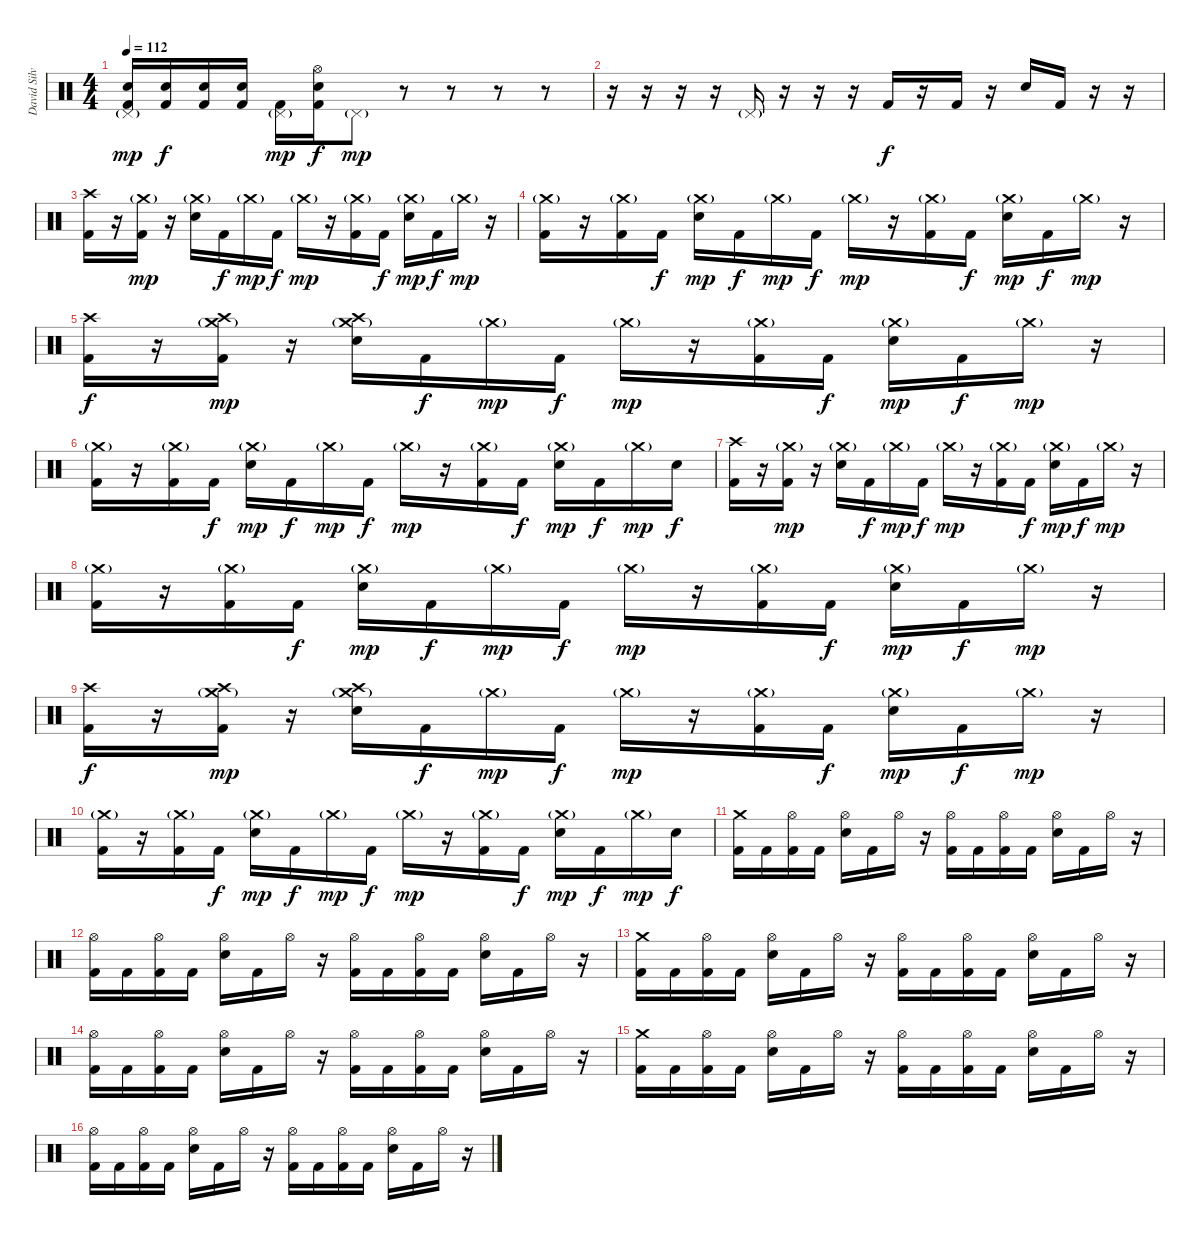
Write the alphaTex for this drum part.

\track ("David Silveria" "David Silv") {instrument percussion}
\staff {score}
\articulation defaults
\ts (4 4)
\tempo 112
\clef neutral
\ks c
("Pedal Hi-Hat (hit)"{g} "Electric Snare (hit)" "Kick (hit) 2").16{dy mp} ("Electric Snare (hit)" "Kick (hit) 2").16{dy f} ("Electric Snare (hit)" "Kick (hit) 2").16 ("Electric Snare (hit)" "Kick (hit) 2").16 ("Pedal Hi-Hat (hit)"{g} "Kick (hit) 2").16{dy mp} ("Hi-Hat (open)" "Electric Snare (hit)" "Kick (hit) 2").16{dy f} "Pedal Hi-Hat (hit)"{g}.8{dy mp} r.8 r.8 r.8 r.8 |
r.16 r.16 r.16 r.16 "Pedal Hi-Hat (hit)"{g}.16 r.16 r.16 r.16 "Kick (hit) 2".16{dy f} r.16 "Kick (hit) 2".16 r.16 "Electric Snare (hit)".16 "Kick (hit) 2".16 r.16 r.16 |
("Crash high (hit)" "Kick (hit) 2").16 r.16 ("Crash medium (hit)"{g} "Kick (hit) 2").16{dy mp} r.16 ("Crash medium (hit)"{g} "Electric Snare (hit)").16 "Kick (hit) 2".16{dy f} "Crash medium (hit)"{g}.16{dy mp} "Kick (hit) 2".16{dy f} "Crash medium (hit)"{g}.16{dy mp} r.16 ("Crash medium (hit)"{g} "Kick (hit) 2").16 "Kick (hit) 2".16{dy f} ("Crash medium (hit)"{g} "Electric Snare (hit)").16{dy mp} "Kick (hit) 2".16{dy f} "Crash medium (hit)"{g}.16{dy mp} r.16 |
("Crash medium (hit)"{g} "Kick (hit) 2").16 r.16 ("Crash medium (hit)"{g} "Kick (hit) 2").16 "Kick (hit) 2".16{dy f} ("Crash medium (hit)"{g} "Electric Snare (hit)").16{dy mp} "Kick (hit) 2".16{dy f} "Crash medium (hit)"{g}.16{dy mp} "Kick (hit) 2".16{dy f} "Crash medium (hit)"{g}.16{dy mp} r.16 ("Crash medium (hit)"{g} "Kick (hit) 2").16 "Kick (hit) 2".16{dy f} ("Crash medium (hit)"{g} "Electric Snare (hit)").16{dy mp} "Kick (hit) 2".16{dy f} "Crash medium (hit)"{g}.16{dy mp} r.16 |
("Crash high (hit)" "Kick (hit) 2").16{dy f} r.16 ("Crash high (hit)" "Crash medium (hit)"{g} "Kick (hit) 2").16{dy mp} r.16 ("Crash high (hit)" "Crash medium (hit)"{g} "Electric Snare (hit)").16 "Kick (hit) 2".16{dy f} "Crash medium (hit)"{g}.16{dy mp} "Kick (hit) 2".16{dy f} "Crash medium (hit)"{g}.16{dy mp} r.16 ("Crash medium (hit)"{g} "Kick (hit) 2").16 "Kick (hit) 2".16{dy f} ("Crash medium (hit)"{g} "Electric Snare (hit)").16{dy mp} "Kick (hit) 2".16{dy f} "Crash medium (hit)"{g}.16{dy mp} r.16 |
("Crash medium (hit)"{g} "Kick (hit) 2").16 r.16 ("Crash medium (hit)"{g} "Kick (hit) 2").16 "Kick (hit) 2".16{dy f} ("Crash medium (hit)"{g} "Electric Snare (hit)").16{dy mp} "Kick (hit) 2".16{dy f} "Crash medium (hit)"{g}.16{dy mp} "Kick (hit) 2".16{dy f} "Crash medium (hit)"{g}.16{dy mp} r.16 ("Crash medium (hit)"{g} "Kick (hit) 2").16 "Kick (hit) 2".16{dy f} ("Crash medium (hit)"{g} "Electric Snare (hit)").16{dy mp} "Kick (hit) 2".16{dy f} "Crash medium (hit)"{g}.16{dy mp} "Electric Snare (hit)".16{dy f} |
("Crash high (hit)" "Kick (hit) 2").16 r.16 ("Crash medium (hit)"{g} "Kick (hit) 2").16{dy mp} r.16 ("Crash medium (hit)"{g} "Electric Snare (hit)").16 "Kick (hit) 2".16{dy f} "Crash medium (hit)"{g}.16{dy mp} "Kick (hit) 2".16{dy f} "Crash medium (hit)"{g}.16{dy mp} r.16 ("Crash medium (hit)"{g} "Kick (hit) 2").16 "Kick (hit) 2".16{dy f} ("Crash medium (hit)"{g} "Electric Snare (hit)").16{dy mp} "Kick (hit) 2".16{dy f} "Crash medium (hit)"{g}.16{dy mp} r.16 |
("Crash medium (hit)"{g} "Kick (hit) 2").16 r.16 ("Crash medium (hit)"{g} "Kick (hit) 2").16 "Kick (hit) 2".16{dy f} ("Crash medium (hit)"{g} "Electric Snare (hit)").16{dy mp} "Kick (hit) 2".16{dy f} "Crash medium (hit)"{g}.16{dy mp} "Kick (hit) 2".16{dy f} "Crash medium (hit)"{g}.16{dy mp} r.16 ("Crash medium (hit)"{g} "Kick (hit) 2").16 "Kick (hit) 2".16{dy f} ("Crash medium (hit)"{g} "Electric Snare (hit)").16{dy mp} "Kick (hit) 2".16{dy f} "Crash medium (hit)"{g}.16{dy mp} r.16 |
("Crash high (hit)" "Kick (hit) 2").16{dy f} r.16 ("Crash high (hit)" "Crash medium (hit)"{g} "Kick (hit) 2").16{dy mp} r.16 ("Crash high (hit)" "Crash medium (hit)"{g} "Electric Snare (hit)").16 "Kick (hit) 2".16{dy f} "Crash medium (hit)"{g}.16{dy mp} "Kick (hit) 2".16{dy f} "Crash medium (hit)"{g}.16{dy mp} r.16 ("Crash medium (hit)"{g} "Kick (hit) 2").16 "Kick (hit) 2".16{dy f} ("Crash medium (hit)"{g} "Electric Snare (hit)").16{dy mp} "Kick (hit) 2".16{dy f} "Crash medium (hit)"{g}.16{dy mp} r.16 |
("Crash medium (hit)"{g} "Kick (hit) 2").16 r.16 ("Crash medium (hit)"{g} "Kick (hit) 2").16 "Kick (hit) 2".16{dy f} ("Crash medium (hit)"{g} "Electric Snare (hit)").16{dy mp} "Kick (hit) 2".16{dy f} "Crash medium (hit)"{g}.16{dy mp} "Kick (hit) 2".16{dy f} "Crash medium (hit)"{g}.16{dy mp} r.16 ("Crash medium (hit)"{g} "Kick (hit) 2").16 "Kick (hit) 2".16{dy f} ("Crash medium (hit)"{g} "Electric Snare (hit)").16{dy mp} "Kick (hit) 2".16{dy f} "Crash medium (hit)"{g}.16{dy mp} "Electric Snare (hit)".16{dy f} |
("Crash medium (hit)" "Kick (hit) 2").16 "Kick (hit) 2".16 ("Hi-Hat (open)" "Kick (hit) 2").16 "Kick (hit) 2".16 ("Hi-Hat (open)" "Electric Snare (hit)").16 "Kick (hit) 2".16 "Hi-Hat (open)".16 r.16 ("Hi-Hat (open)" "Kick (hit) 2").16 "Kick (hit) 2".16 ("Hi-Hat (open)" "Kick (hit) 2").16 "Kick (hit) 2".16 ("Hi-Hat (open)" "Electric Snare (hit)").16 "Kick (hit) 2".16 "Hi-Hat (open)".16 r.16 |
("Hi-Hat (open)" "Kick (hit) 2").16 "Kick (hit) 2".16 ("Hi-Hat (open)" "Kick (hit) 2").16 "Kick (hit) 2".16 ("Hi-Hat (open)" "Electric Snare (hit)").16 "Kick (hit) 2".16 "Hi-Hat (open)".16 r.16 ("Hi-Hat (open)" "Kick (hit) 2").16 "Kick (hit) 2".16 ("Hi-Hat (open)" "Kick (hit) 2").16 "Kick (hit) 2".16 ("Hi-Hat (open)" "Electric Snare (hit)").16 "Kick (hit) 2".16 "Hi-Hat (open)".16 r.16 |
("Crash medium (hit)" "Kick (hit) 2").16 "Kick (hit) 2".16 ("Hi-Hat (open)" "Kick (hit) 2").16 "Kick (hit) 2".16 ("Hi-Hat (open)" "Electric Snare (hit)").16 "Kick (hit) 2".16 "Hi-Hat (open)".16 r.16 ("Hi-Hat (open)" "Kick (hit) 2").16 "Kick (hit) 2".16 ("Hi-Hat (open)" "Kick (hit) 2").16 "Kick (hit) 2".16 ("Hi-Hat (open)" "Electric Snare (hit)").16 "Kick (hit) 2".16 "Hi-Hat (open)".16 r.16 |
("Hi-Hat (open)" "Kick (hit) 2").16 "Kick (hit) 2".16 ("Hi-Hat (open)" "Kick (hit) 2").16 "Kick (hit) 2".16 ("Hi-Hat (open)" "Electric Snare (hit)").16 "Kick (hit) 2".16 "Hi-Hat (open)".16 r.16 ("Hi-Hat (open)" "Kick (hit) 2").16 "Kick (hit) 2".16 ("Hi-Hat (open)" "Kick (hit) 2").16 "Kick (hit) 2".16 ("Hi-Hat (open)" "Electric Snare (hit)").16 "Kick (hit) 2".16 "Hi-Hat (open)".16 r.16 |
("Crash medium (hit)" "Kick (hit) 2").16 "Kick (hit) 2".16 ("Hi-Hat (open)" "Kick (hit) 2").16 "Kick (hit) 2".16 ("Hi-Hat (open)" "Electric Snare (hit)").16 "Kick (hit) 2".16 "Hi-Hat (open)".16 r.16 ("Hi-Hat (open)" "Kick (hit) 2").16 "Kick (hit) 2".16 ("Hi-Hat (open)" "Kick (hit) 2").16 "Kick (hit) 2".16 ("Hi-Hat (open)" "Electric Snare (hit)").16 "Kick (hit) 2".16 "Hi-Hat (open)".16 r.16 |
("Hi-Hat (open)" "Kick (hit) 2").16 "Kick (hit) 2".16 ("Hi-Hat (open)" "Kick (hit) 2").16 "Kick (hit) 2".16 ("Hi-Hat (open)" "Electric Snare (hit)").16 "Kick (hit) 2".16 "Hi-Hat (open)".16 r.16 ("Hi-Hat (open)" "Kick (hit) 2").16 "Kick (hit) 2".16 ("Hi-Hat (open)" "Kick (hit) 2").16 "Kick (hit) 2".16 ("Hi-Hat (open)" "Electric Snare (hit)").16 "Kick (hit) 2".16 "Hi-Hat (open)".16 r.16
